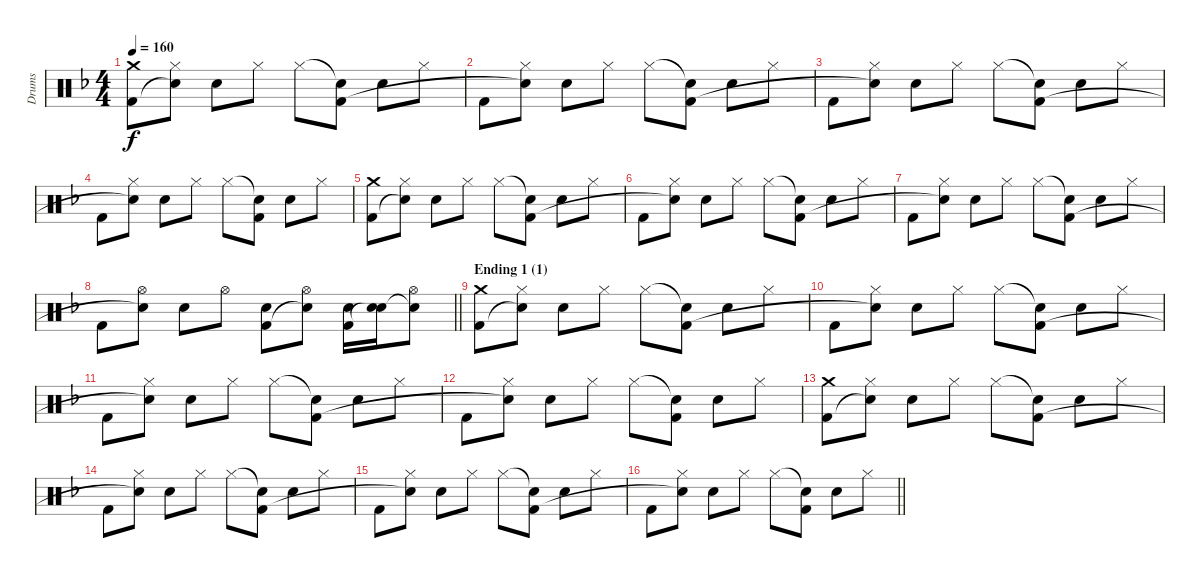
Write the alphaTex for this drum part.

\track ("Drums" "Drums") {instrument percussion}
\staff {score}
\articulation defaults
\ts (4 4)
\tempo 160
\clef neutral
\ks f
("Crash medium (hit)" "Kick (hit) 2").8{dy f} ("Hi-Hat (closed)" "Snare (hit)"{t}).8 "Electric Snare (hit)".8 "Hi-Hat (closed)".8 "Hi-Hat (closed)".8 ("Snare (hit)"{t} "Kick (hit) 2").8 "Electric Snare (hit)".8 "Hi-Hat (closed)".8 |
"Kick (hit) 2".8 ("Hi-Hat (closed)" "Snare (hit)"{t}).8 "Electric Snare (hit)".8 "Hi-Hat (closed)".8 "Hi-Hat (closed)".8 ("Snare (hit)"{t} "Kick (hit) 2").8 "Electric Snare (hit)".8 "Hi-Hat (closed)".8 |
"Kick (hit) 2".8 ("Hi-Hat (closed)" "Snare (hit)"{t}).8 "Electric Snare (hit)".8 "Hi-Hat (closed)".8 "Hi-Hat (closed)".8 ("Snare (hit)"{t} "Kick (hit) 2").8 "Electric Snare (hit)".8 "Hi-Hat (closed)".8 |
"Kick (hit) 2".8 ("Hi-Hat (closed)" "Snare (hit)"{t}).8 "Electric Snare (hit)".8 "Hi-Hat (closed)".8 "Hi-Hat (closed)".8 ("Snare (hit)"{t} "Kick (hit) 2").8 "Electric Snare (hit)".8 "Hi-Hat (closed)".8 |
("Crash medium (hit)" "Kick (hit) 2").8 ("Hi-Hat (closed)" "Snare (hit)"{t}).8 "Electric Snare (hit)".8 "Hi-Hat (closed)".8 "Hi-Hat (closed)".8 ("Snare (hit)"{t} "Kick (hit) 2").8 "Electric Snare (hit)".8 "Hi-Hat (closed)".8 |
"Kick (hit) 2".8 ("Hi-Hat (closed)" "Snare (hit)"{t}).8 "Electric Snare (hit)".8 "Hi-Hat (closed)".8 "Hi-Hat (closed)".8 ("Snare (hit)"{t} "Kick (hit) 2").8 "Electric Snare (hit)".8 "Hi-Hat (closed)".8 |
"Kick (hit) 2".8 ("Hi-Hat (closed)" "Snare (hit)"{t}).8 "Electric Snare (hit)".8 "Hi-Hat (closed)".8 "Hi-Hat (closed)".8 ("Snare (hit)"{t} "Kick (hit) 2").8 "Electric Snare (hit)".8 "Hi-Hat (closed)".8 |
\barLineRight lightlight "Kick (hit) 2".8
("Hi-Hat (open)" "Snare (hit)"{t}).8 "Electric Snare (hit)".8 "Hi-Hat (open)".8 ("Electric Snare (hit)" "Kick (hit) 2").8 ("Hi-Hat (open)" "Snare (hit)"{t}).8 ("Electric Snare (hit)" "Kick (hit) 2").16 ("Electric Snare (hit)" "Snare (hit)"{t}).16 ("Hi-Hat (open)" "Snare (hit)"{t}).8 |
\section ("" "Ending 1 (1)")
("Crash medium (hit)" "Kick (hit) 2").8 ("Hi-Hat (closed)" "Snare (hit)"{t}).8 "Electric Snare (hit)".8 "Hi-Hat (closed)".8 "Hi-Hat (closed)".8 ("Snare (hit)"{t} "Kick (hit) 2").8 "Electric Snare (hit)".8 "Hi-Hat (closed)".8 |
"Kick (hit) 2".8 ("Hi-Hat (closed)" "Snare (hit)"{t}).8 "Electric Snare (hit)".8 "Hi-Hat (closed)".8 "Hi-Hat (closed)".8 ("Snare (hit)"{t} "Kick (hit) 2").8 "Electric Snare (hit)".8 "Hi-Hat (closed)".8 |
"Kick (hit) 2".8 ("Hi-Hat (closed)" "Snare (hit)"{t}).8 "Electric Snare (hit)".8 "Hi-Hat (closed)".8 "Hi-Hat (closed)".8 ("Snare (hit)"{t} "Kick (hit) 2").8 "Electric Snare (hit)".8 "Hi-Hat (closed)".8 |
"Kick (hit) 2".8 ("Hi-Hat (closed)" "Snare (hit)"{t}).8 "Electric Snare (hit)".8 "Hi-Hat (closed)".8 "Hi-Hat (closed)".8 ("Snare (hit)"{t} "Kick (hit) 2").8 "Electric Snare (hit)".8 "Hi-Hat (closed)".8 |
("Crash medium (hit)" "Kick (hit) 2").8 ("Hi-Hat (closed)" "Snare (hit)"{t}).8 "Electric Snare (hit)".8 "Hi-Hat (closed)".8 "Hi-Hat (closed)".8 ("Snare (hit)"{t} "Kick (hit) 2").8 "Electric Snare (hit)".8 "Hi-Hat (closed)".8 |
"Kick (hit) 2".8 ("Hi-Hat (closed)" "Snare (hit)"{t}).8 "Electric Snare (hit)".8 "Hi-Hat (closed)".8 "Hi-Hat (closed)".8 ("Snare (hit)"{t} "Kick (hit) 2").8 "Electric Snare (hit)".8 "Hi-Hat (closed)".8 |
"Kick (hit) 2".8 ("Hi-Hat (closed)" "Snare (hit)"{t}).8 "Electric Snare (hit)".8 "Hi-Hat (closed)".8 "Hi-Hat (closed)".8 ("Snare (hit)"{t} "Kick (hit) 2").8 "Electric Snare (hit)".8 "Hi-Hat (closed)".8 |
\barLineRight lightlight "Kick (hit) 2".8
("Hi-Hat (closed)" "Snare (hit)"{t}).8 "Electric Snare (hit)".8 "Hi-Hat (closed)".8 "Hi-Hat (closed)".8 ("Snare (hit)"{t} "Kick (hit) 2").8 "Electric Snare (hit)".8 "Hi-Hat (closed)".8
